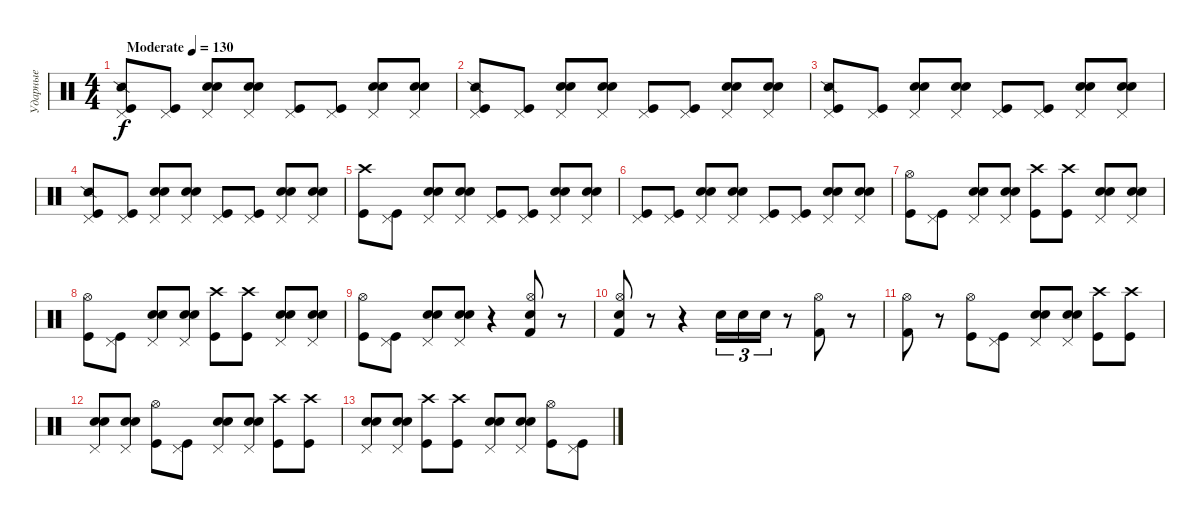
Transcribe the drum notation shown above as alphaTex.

\track ("Ударные" "Ударные") {instrument percussion}
\staff {score}
\articulation defaults
\ts (4 4)
\tempo (130 "Moderate")
\clef neutral
\ks c
("Snare (side stick) 2" "Pedal Hi-Hat (hit)" "Kick (hit)").8{dy f} ("Pedal Hi-Hat (hit)" "Kick (hit)").8 ("Hand Clap (hit)" "Pedal Hi-Hat (hit)" "Snare (hit) 2").8 ("Hand Clap (hit)" "Pedal Hi-Hat (hit)" "Snare (hit) 2").8 ("Pedal Hi-Hat (hit)" "Kick (hit)").8 ("Pedal Hi-Hat (hit)" "Kick (hit)").8 ("Hand Clap (hit)" "Pedal Hi-Hat (hit)" "Snare (hit) 2").8 ("Hand Clap (hit)" "Pedal Hi-Hat (hit)" "Snare (hit) 2").8 |
("Snare (side stick) 2" "Pedal Hi-Hat (hit)" "Kick (hit)").8 ("Pedal Hi-Hat (hit)" "Kick (hit)").8 ("Hand Clap (hit)" "Pedal Hi-Hat (hit)" "Snare (hit) 2").8 ("Hand Clap (hit)" "Pedal Hi-Hat (hit)" "Snare (hit) 2").8 ("Pedal Hi-Hat (hit)" "Kick (hit)").8 ("Pedal Hi-Hat (hit)" "Kick (hit)").8 ("Hand Clap (hit)" "Pedal Hi-Hat (hit)" "Snare (hit) 2").8 ("Hand Clap (hit)" "Pedal Hi-Hat (hit)" "Snare (hit) 2").8 |
("Snare (side stick) 2" "Pedal Hi-Hat (hit)" "Kick (hit)").8 ("Pedal Hi-Hat (hit)" "Kick (hit)").8 ("Hand Clap (hit)" "Pedal Hi-Hat (hit)" "Snare (hit) 2").8 ("Hand Clap (hit)" "Pedal Hi-Hat (hit)" "Snare (hit) 2").8 ("Pedal Hi-Hat (hit)" "Kick (hit)").8 ("Pedal Hi-Hat (hit)" "Kick (hit)").8 ("Hand Clap (hit)" "Pedal Hi-Hat (hit)" "Snare (hit) 2").8 ("Hand Clap (hit)" "Pedal Hi-Hat (hit)" "Snare (hit) 2").8 |
("Snare (side stick) 2" "Pedal Hi-Hat (hit)" "Kick (hit)").8 ("Pedal Hi-Hat (hit)" "Kick (hit)").8 ("Hand Clap (hit)" "Pedal Hi-Hat (hit)" "Snare (hit) 2").8 ("Hand Clap (hit)" "Pedal Hi-Hat (hit)" "Snare (hit) 2").8 ("Pedal Hi-Hat (hit)" "Kick (hit)").8 ("Pedal Hi-Hat (hit)" "Kick (hit)").8 ("Hand Clap (hit)" "Pedal Hi-Hat (hit)" "Snare (hit) 2").8 ("Hand Clap (hit)" "Pedal Hi-Hat (hit)" "Snare (hit) 2").8 |
("Crash high (hit)" "Kick (hit)").8 ("Pedal Hi-Hat (hit)" "Kick (hit)").8 ("Hand Clap (hit)" "Pedal Hi-Hat (hit)" "Snare (hit) 2").8 ("Hand Clap (hit)" "Pedal Hi-Hat (hit)" "Snare (hit) 2").8 ("Pedal Hi-Hat (hit)" "Kick (hit)").8 ("Pedal Hi-Hat (hit)" "Kick (hit)").8 ("Hand Clap (hit)" "Pedal Hi-Hat (hit)" "Snare (hit) 2").8 ("Hand Clap (hit)" "Pedal Hi-Hat (hit)" "Snare (hit) 2").8 |
("Pedal Hi-Hat (hit)" "Kick (hit)").8 ("Pedal Hi-Hat (hit)" "Kick (hit)").8 ("Hand Clap (hit)" "Pedal Hi-Hat (hit)" "Snare (hit) 2").8 ("Hand Clap (hit)" "Pedal Hi-Hat (hit)" "Snare (hit) 2").8 ("Pedal Hi-Hat (hit)" "Kick (hit)").8 ("Pedal Hi-Hat (hit)" "Kick (hit)").8 ("Hand Clap (hit)" "Pedal Hi-Hat (hit)" "Snare (hit) 2").8 ("Hand Clap (hit)" "Pedal Hi-Hat (hit)" "Snare (hit) 2").8 |
("Hi-Hat (open)" "Kick (hit)").8 ("Pedal Hi-Hat (hit)" "Kick (hit)").8 ("Hand Clap (hit)" "Pedal Hi-Hat (hit)" "Snare (hit) 2").8 ("Hand Clap (hit)" "Pedal Hi-Hat (hit)" "Snare (hit) 2").8 ("Crash high (hit)" "Kick (hit)").8 ("Crash high (hit)" "Kick (hit)").8 ("Hand Clap (hit)" "Pedal Hi-Hat (hit)" "Snare (hit) 2").8 ("Hand Clap (hit)" "Pedal Hi-Hat (hit)" "Snare (hit) 2").8 |
("Hi-Hat (open)" "Kick (hit)").8 ("Pedal Hi-Hat (hit)" "Kick (hit)").8 ("Hand Clap (hit)" "Pedal Hi-Hat (hit)" "Snare (hit) 2").8 ("Hand Clap (hit)" "Pedal Hi-Hat (hit)" "Snare (hit) 2").8 ("Crash high (hit)" "Kick (hit)").8 ("Crash high (hit)" "Kick (hit)").8 ("Hand Clap (hit)" "Pedal Hi-Hat (hit)" "Snare (hit) 2").8 ("Hand Clap (hit)" "Pedal Hi-Hat (hit)" "Snare (hit) 2").8 |
("Hi-Hat (open)" "Kick (hit)").8 ("Pedal Hi-Hat (hit)" "Kick (hit)").8 ("Hand Clap (hit)" "Pedal Hi-Hat (hit)" "Snare (hit) 2").8 ("Hand Clap (hit)" "Pedal Hi-Hat (hit)" "Snare (hit) 2").8 r.4 ("Hi-Hat (open)" "Snare (hit) 2" "Kick (hit) 2").8 r.8 |
("Hi-Hat (open)" "Snare (hit) 2" "Kick (hit) 2").8 r.8 r.4 "Snare (hit) 2".16{tu (3 2)} "Snare (hit) 2".16{tu (3 2)} "Snare (hit) 2".16{tu (3 2)} r.8 ("Hi-Hat (open)" "Kick (hit) 2").8 r.8 |
("Hi-Hat (open)" "Kick (hit) 2").8 r.8 ("Hi-Hat (open)" "Kick (hit)").8 ("Pedal Hi-Hat (hit)" "Kick (hit)").8 ("Hand Clap (hit)" "Pedal Hi-Hat (hit)" "Snare (hit) 2").8 ("Hand Clap (hit)" "Pedal Hi-Hat (hit)" "Snare (hit) 2").8 ("Crash high (hit)" "Kick (hit)").8 ("Crash high (hit)" "Kick (hit)").8 |
("Hand Clap (hit)" "Pedal Hi-Hat (hit)" "Snare (hit) 2").8 ("Hand Clap (hit)" "Pedal Hi-Hat (hit)" "Snare (hit) 2").8 ("Hi-Hat (open)" "Kick (hit)").8 ("Pedal Hi-Hat (hit)" "Kick (hit)").8 ("Hand Clap (hit)" "Pedal Hi-Hat (hit)" "Snare (hit) 2").8 ("Hand Clap (hit)" "Pedal Hi-Hat (hit)" "Snare (hit) 2").8 ("Crash high (hit)" "Kick (hit)").8 ("Crash high (hit)" "Kick (hit)").8 |
("Hand Clap (hit)" "Pedal Hi-Hat (hit)" "Snare (hit) 2").8 ("Hand Clap (hit)" "Pedal Hi-Hat (hit)" "Snare (hit) 2").8 ("Crash high (hit)" "Kick (hit)").8 ("Crash high (hit)" "Kick (hit)").8 ("Hand Clap (hit)" "Pedal Hi-Hat (hit)" "Snare (hit) 2").8 ("Hand Clap (hit)" "Pedal Hi-Hat (hit)" "Snare (hit) 2").8 ("Hi-Hat (open)" "Kick (hit)").8 ("Pedal Hi-Hat (hit)" "Kick (hit)").8
